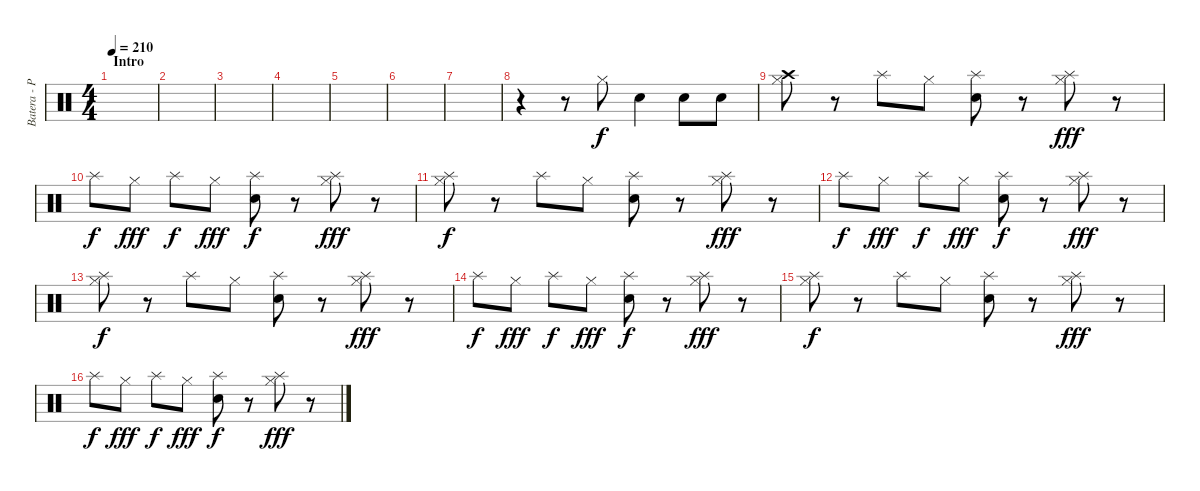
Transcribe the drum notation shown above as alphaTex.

\track ("Batera - Pelado" "Batera - P") {instrument percussion}
\staff {score}
\articulation defaults
\ts (4 4)
\section ("" "Intro")
\tempo 210
\clef neutral
\ks c
|
|
|
|
|
|
|
r.4 r.8 "Hi-Hat (closed)".8 "Electric Snare (hit)".4{dy f} "Electric Snare (hit)".8 "Electric Snare (hit)".8 |
("Crash high (hit)" "Hi-Hat (closed)").8 r.8 "Splash (hit)".8 "Hi-Hat (closed)".8 ("Splash (hit)" "Electric Snare (hit)").8 r.8 ("Splash (hit)" "Hi-Hat (closed)").8{dy fff} r.8 |
"Splash (hit)".8{dy f} "Hi-Hat (closed)".8{dy fff} "Splash (hit)".8{dy f} "Hi-Hat (closed)".8{dy fff} ("Splash (hit)" "Electric Snare (hit)").8{dy f} r.8 ("Splash (hit)" "Hi-Hat (closed)").8{dy fff} r.8 |
("Splash (hit)" "Hi-Hat (closed)").8{dy f} r.8 "Splash (hit)".8 "Hi-Hat (closed)".8 ("Splash (hit)" "Electric Snare (hit)").8 r.8 ("Splash (hit)" "Hi-Hat (closed)").8{dy fff} r.8 |
"Splash (hit)".8{dy f} "Hi-Hat (closed)".8{dy fff} "Splash (hit)".8{dy f} "Hi-Hat (closed)".8{dy fff} ("Splash (hit)" "Electric Snare (hit)").8{dy f} r.8 ("Splash (hit)" "Hi-Hat (closed)").8{dy fff} r.8 |
("Splash (hit)" "Hi-Hat (closed)").8{dy f} r.8 "Splash (hit)".8 "Hi-Hat (closed)".8 ("Splash (hit)" "Electric Snare (hit)").8 r.8 ("Splash (hit)" "Hi-Hat (closed)").8{dy fff} r.8 |
"Splash (hit)".8{dy f} "Hi-Hat (closed)".8{dy fff} "Splash (hit)".8{dy f} "Hi-Hat (closed)".8{dy fff} ("Splash (hit)" "Electric Snare (hit)").8{dy f} r.8 ("Splash (hit)" "Hi-Hat (closed)").8{dy fff} r.8 |
("Splash (hit)" "Hi-Hat (closed)").8{dy f} r.8 "Splash (hit)".8 "Hi-Hat (closed)".8 ("Splash (hit)" "Electric Snare (hit)").8 r.8 ("Splash (hit)" "Hi-Hat (closed)").8{dy fff} r.8 |
"Splash (hit)".8{dy f} "Hi-Hat (closed)".8{dy fff} "Splash (hit)".8{dy f} "Hi-Hat (closed)".8{dy fff} ("Splash (hit)" "Electric Snare (hit)").8{dy f} r.8 ("Splash (hit)" "Hi-Hat (closed)").8{dy fff} r.8
